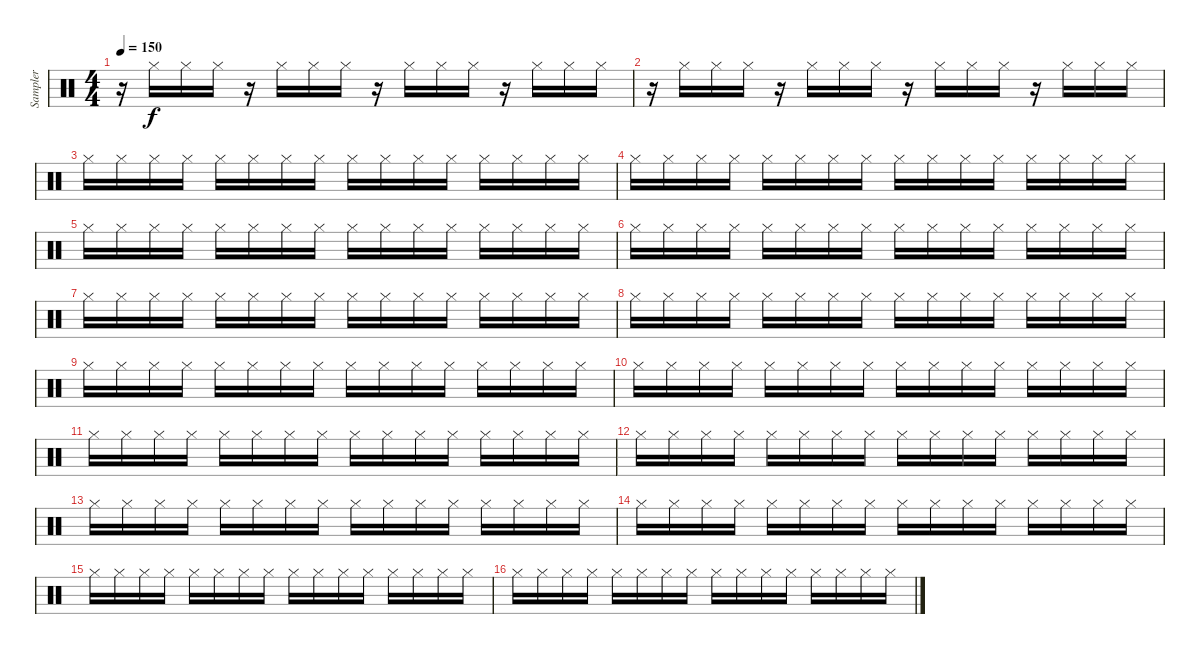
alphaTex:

\track ("Sampler" "Sampler") {instrument percussion}
\staff {score}
\articulation defaults
\ts (4 4)
\tempo 150
\clef neutral
\ks c
r.16{dy f} "Hi-Hat (closed)".16 "Hi-Hat (closed)".16 "Hi-Hat (closed)".16 r.16 "Hi-Hat (closed)".16 "Hi-Hat (closed)".16 "Hi-Hat (closed)".16 r.16 "Hi-Hat (closed)".16 "Hi-Hat (closed)".16 "Hi-Hat (closed)".16 r.16 "Hi-Hat (closed)".16 "Hi-Hat (closed)".16 "Hi-Hat (closed)".16 |
r.16 "Hi-Hat (closed)".16 "Hi-Hat (closed)".16 "Hi-Hat (closed)".16 r.16 "Hi-Hat (closed)".16 "Hi-Hat (closed)".16 "Hi-Hat (closed)".16 r.16 "Hi-Hat (closed)".16 "Hi-Hat (closed)".16 "Hi-Hat (closed)".16 r.16 "Hi-Hat (closed)".16 "Hi-Hat (closed)".16 "Hi-Hat (closed)".16 |
"Hi-Hat (closed)".16 "Hi-Hat (closed)".16 "Hi-Hat (closed)".16 "Hi-Hat (closed)".16 "Hi-Hat (closed)".16 "Hi-Hat (closed)".16 "Hi-Hat (closed)".16 "Hi-Hat (closed)".16 "Hi-Hat (closed)".16 "Hi-Hat (closed)".16 "Hi-Hat (closed)".16 "Hi-Hat (closed)".16 "Hi-Hat (closed)".16 "Hi-Hat (closed)".16 "Hi-Hat (closed)".16 "Hi-Hat (closed)".16 |
"Hi-Hat (closed)".16 "Hi-Hat (closed)".16 "Hi-Hat (closed)".16 "Hi-Hat (closed)".16 "Hi-Hat (closed)".16 "Hi-Hat (closed)".16 "Hi-Hat (closed)".16 "Hi-Hat (closed)".16 "Hi-Hat (closed)".16 "Hi-Hat (closed)".16 "Hi-Hat (closed)".16 "Hi-Hat (closed)".16 "Hi-Hat (closed)".16 "Hi-Hat (closed)".16 "Hi-Hat (closed)".16 "Hi-Hat (closed)".16 |
"Hi-Hat (closed)".16 "Hi-Hat (closed)".16 "Hi-Hat (closed)".16 "Hi-Hat (closed)".16 "Hi-Hat (closed)".16 "Hi-Hat (closed)".16 "Hi-Hat (closed)".16 "Hi-Hat (closed)".16 "Hi-Hat (closed)".16 "Hi-Hat (closed)".16 "Hi-Hat (closed)".16 "Hi-Hat (closed)".16 "Hi-Hat (closed)".16 "Hi-Hat (closed)".16 "Hi-Hat (closed)".16 "Hi-Hat (closed)".16 |
"Hi-Hat (closed)".16 "Hi-Hat (closed)".16 "Hi-Hat (closed)".16 "Hi-Hat (closed)".16 "Hi-Hat (closed)".16 "Hi-Hat (closed)".16 "Hi-Hat (closed)".16 "Hi-Hat (closed)".16 "Hi-Hat (closed)".16 "Hi-Hat (closed)".16 "Hi-Hat (closed)".16 "Hi-Hat (closed)".16 "Hi-Hat (closed)".16 "Hi-Hat (closed)".16 "Hi-Hat (closed)".16 "Hi-Hat (closed)".16 |
"Hi-Hat (closed)".16 "Hi-Hat (closed)".16 "Hi-Hat (closed)".16 "Hi-Hat (closed)".16 "Hi-Hat (closed)".16 "Hi-Hat (closed)".16 "Hi-Hat (closed)".16 "Hi-Hat (closed)".16 "Hi-Hat (closed)".16 "Hi-Hat (closed)".16 "Hi-Hat (closed)".16 "Hi-Hat (closed)".16 "Hi-Hat (closed)".16 "Hi-Hat (closed)".16 "Hi-Hat (closed)".16 "Hi-Hat (closed)".16 |
"Hi-Hat (closed)".16 "Hi-Hat (closed)".16 "Hi-Hat (closed)".16 "Hi-Hat (closed)".16 "Hi-Hat (closed)".16 "Hi-Hat (closed)".16 "Hi-Hat (closed)".16 "Hi-Hat (closed)".16 "Hi-Hat (closed)".16 "Hi-Hat (closed)".16 "Hi-Hat (closed)".16 "Hi-Hat (closed)".16 "Hi-Hat (closed)".16 "Hi-Hat (closed)".16 "Hi-Hat (closed)".16 "Hi-Hat (closed)".16 |
"Hi-Hat (closed)".16 "Hi-Hat (closed)".16 "Hi-Hat (closed)".16 "Hi-Hat (closed)".16 "Hi-Hat (closed)".16 "Hi-Hat (closed)".16 "Hi-Hat (closed)".16 "Hi-Hat (closed)".16 "Hi-Hat (closed)".16 "Hi-Hat (closed)".16 "Hi-Hat (closed)".16 "Hi-Hat (closed)".16 "Hi-Hat (closed)".16 "Hi-Hat (closed)".16 "Hi-Hat (closed)".16 "Hi-Hat (closed)".16 |
"Hi-Hat (closed)".16 "Hi-Hat (closed)".16 "Hi-Hat (closed)".16 "Hi-Hat (closed)".16 "Hi-Hat (closed)".16 "Hi-Hat (closed)".16 "Hi-Hat (closed)".16 "Hi-Hat (closed)".16 "Hi-Hat (closed)".16 "Hi-Hat (closed)".16 "Hi-Hat (closed)".16 "Hi-Hat (closed)".16 "Hi-Hat (closed)".16 "Hi-Hat (closed)".16 "Hi-Hat (closed)".16 "Hi-Hat (closed)".16 |
"Hi-Hat (closed)".16 "Hi-Hat (closed)".16 "Hi-Hat (closed)".16 "Hi-Hat (closed)".16 "Hi-Hat (closed)".16 "Hi-Hat (closed)".16 "Hi-Hat (closed)".16 "Hi-Hat (closed)".16 "Hi-Hat (closed)".16 "Hi-Hat (closed)".16 "Hi-Hat (closed)".16 "Hi-Hat (closed)".16 "Hi-Hat (closed)".16 "Hi-Hat (closed)".16 "Hi-Hat (closed)".16 "Hi-Hat (closed)".16 |
"Hi-Hat (closed)".16 "Hi-Hat (closed)".16 "Hi-Hat (closed)".16 "Hi-Hat (closed)".16 "Hi-Hat (closed)".16 "Hi-Hat (closed)".16 "Hi-Hat (closed)".16 "Hi-Hat (closed)".16 "Hi-Hat (closed)".16 "Hi-Hat (closed)".16 "Hi-Hat (closed)".16 "Hi-Hat (closed)".16 "Hi-Hat (closed)".16 "Hi-Hat (closed)".16 "Hi-Hat (closed)".16 "Hi-Hat (closed)".16 |
"Hi-Hat (closed)".16 "Hi-Hat (closed)".16 "Hi-Hat (closed)".16 "Hi-Hat (closed)".16 "Hi-Hat (closed)".16 "Hi-Hat (closed)".16 "Hi-Hat (closed)".16 "Hi-Hat (closed)".16 "Hi-Hat (closed)".16 "Hi-Hat (closed)".16 "Hi-Hat (closed)".16 "Hi-Hat (closed)".16 "Hi-Hat (closed)".16 "Hi-Hat (closed)".16 "Hi-Hat (closed)".16 "Hi-Hat (closed)".16 |
"Hi-Hat (closed)".16 "Hi-Hat (closed)".16 "Hi-Hat (closed)".16 "Hi-Hat (closed)".16 "Hi-Hat (closed)".16 "Hi-Hat (closed)".16 "Hi-Hat (closed)".16 "Hi-Hat (closed)".16 "Hi-Hat (closed)".16 "Hi-Hat (closed)".16 "Hi-Hat (closed)".16 "Hi-Hat (closed)".16 "Hi-Hat (closed)".16 "Hi-Hat (closed)".16 "Hi-Hat (closed)".16 "Hi-Hat (closed)".16 |
"Hi-Hat (closed)".16 "Hi-Hat (closed)".16 "Hi-Hat (closed)".16 "Hi-Hat (closed)".16 "Hi-Hat (closed)".16 "Hi-Hat (closed)".16 "Hi-Hat (closed)".16 "Hi-Hat (closed)".16 "Hi-Hat (closed)".16 "Hi-Hat (closed)".16 "Hi-Hat (closed)".16 "Hi-Hat (closed)".16 "Hi-Hat (closed)".16 "Hi-Hat (closed)".16 "Hi-Hat (closed)".16 "Hi-Hat (closed)".16 |
"Hi-Hat (closed)".16 "Hi-Hat (closed)".16 "Hi-Hat (closed)".16 "Hi-Hat (closed)".16 "Hi-Hat (closed)".16 "Hi-Hat (closed)".16 "Hi-Hat (closed)".16 "Hi-Hat (closed)".16 "Hi-Hat (closed)".16 "Hi-Hat (closed)".16 "Hi-Hat (closed)".16 "Hi-Hat (closed)".16 "Hi-Hat (closed)".16 "Hi-Hat (closed)".16 "Hi-Hat (closed)".16 "Hi-Hat (closed)".16
